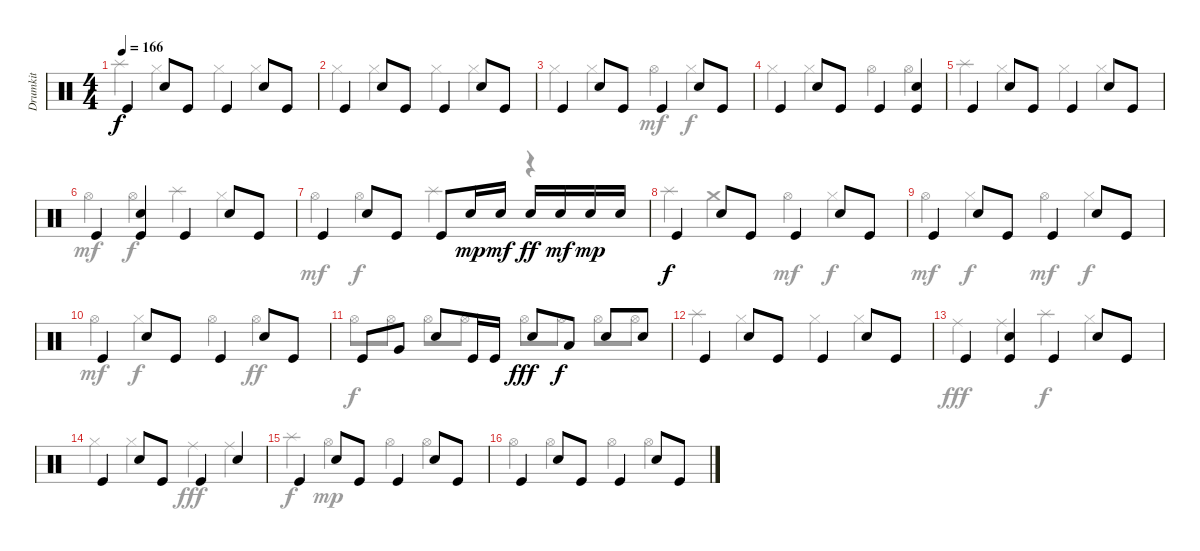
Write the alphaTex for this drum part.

\track ("Drumkit" "Drumkit") {instrument percussion}
\staff {score}
\articulation defaults
\voice
\ts (4 4)
\tempo 166
\clef neutral
\ks c "Kick (hit)".4{dy f} "Snare (hit) 2".8 "Kick (hit)".8 "Kick (hit)".4 "Snare (hit) 2".8 "Kick (hit)".8
|
"Kick (hit)".4 "Snare (hit) 2".8 "Kick (hit)".8 "Kick (hit)".4 "Snare (hit) 2".8 "Kick (hit)".8 |
"Kick (hit)".4 "Snare (hit) 2".8 "Kick (hit)".8 "Kick (hit)".4 "Snare (hit) 2".8 "Kick (hit)".8 |
"Kick (hit)".4 "Snare (hit) 2".8 "Kick (hit)".8 "Kick (hit)".4 ("Snare (hit) 2" "Kick (hit)").4 |
"Kick (hit)".4 "Snare (hit) 2".8 "Kick (hit)".8 "Kick (hit)".4 "Snare (hit) 2".8 "Kick (hit)".8 |
"Kick (hit)".4 ("Kick (hit)" "Snare (hit) 2").4 "Kick (hit)".4 "Snare (hit) 2".8 "Kick (hit)".8 |
"Kick (hit)".4 "Snare (hit) 2".8 "Kick (hit)".8 "Kick (hit)".8 "Snare (hit) 2".16{dy mp} "Snare (hit) 2".16{dy mf} "Snare (hit) 2".16{dy ff} "Snare (hit) 2".16{dy mf} "Snare (hit) 2".16{dy mp} "Snare (hit) 2".16 |
"Kick (hit)".4{dy f} "Snare (hit) 2".8 "Kick (hit)".8 "Kick (hit)".4 "Snare (hit) 2".8 "Kick (hit)".8 |
"Kick (hit)".4 "Snare (hit) 2".8 "Kick (hit)".8 "Kick (hit)".4 "Snare (hit) 2".8 "Kick (hit)".8 |
"Kick (hit)".4 "Snare (hit) 2".8 "Kick (hit)".8 "Kick (hit)".4 "Snare (hit) 2".8 "Kick (hit)".8 |
"Kick (hit)".8 "Very Low Tom (hit)".8 "Snare (hit) 2".8 "Kick (hit)".16 "Kick (hit)".16 "Snare (hit) 2".8{dy fff} "Low Floor Tom (hit)".8{dy f} "Snare (hit) 2".8 "Snare (hit) 2".8 |
"Kick (hit)".4 "Snare (hit) 2".8 "Kick (hit)".8 "Kick (hit)".4 "Snare (hit) 2".8 "Kick (hit)".8 |
"Kick (hit)".4 ("Kick (hit)" "Snare (hit) 2").4 "Kick (hit)".4 "Snare (hit) 2".8 "Kick (hit)".8 |
"Kick (hit)".4 "Snare (hit) 2".8 "Kick (hit)".8 "Kick (hit)".4 "Snare (hit) 2".4 |
"Kick (hit)".4 "Snare (hit) 2".8 "Kick (hit)".8 "Kick (hit)".4 "Snare (hit) 2".8 "Kick (hit)".8 |
"Kick (hit)".4 "Snare (hit) 2".8 "Kick (hit)".8 "Kick (hit)".4 "Snare (hit) 2".8 "Kick (hit)".8
\voice
\clef neutral
\ottava regular
\simile none
\ks c "Splash (hit)".4{dy f} "Hi-Hat (closed)".4 "Hi-Hat (closed)".4 "Hi-Hat (closed)".4
|
"Hi-Hat (closed)".4 "Hi-Hat (closed)".4 "Hi-Hat (closed)".4 "Hi-Hat (closed)".4 |
"Hi-Hat (closed)".4 "Hi-Hat (closed)".4 "Hi-Hat (open)".4{dy mf} "Hi-Hat (closed)".4{dy f} |
"Hi-Hat (closed)".4 "Hi-Hat (closed)".4 "Hi-Hat (open)".4 "Hi-Hat (open)".4 |
"Splash (hit)".4 "Hi-Hat (closed)".4 "Hi-Hat (closed)".4 "Hi-Hat (closed)".4 |
"Hi-Hat (open)".4{dy mf} "Hi-Hat (open)".4{dy f} "Splash (hit)".4 "Hi-Hat (closed)".4 |
"Hi-Hat (open)".4{dy mf} "Hi-Hat (open)".4{dy f} "Splash (hit)".4 r.4 |
"Splash (hit)".4 "Crash medium (hit)".4 "Hi-Hat (open)".4{dy mf} "Hi-Hat (closed)".4{dy f} |
"Hi-Hat (open)".4{dy mf} "Hi-Hat (closed)".4{dy f} "Hi-Hat (open)".4{dy mf} "Hi-Hat (closed)".4{dy f} |
"Hi-Hat (open)".4{dy mf} "Hi-Hat (closed)".4{dy f} "Hi-Hat (open)".4 "Hi-Hat (open)".4{dy ff} |
"Hi-Hat (open)".8{dy f} "Hi-Hat (open)".8 "Hi-Hat (open)".8 "Hi-Hat (open)".8 "Hi-Hat (open)".8 "Hi-Hat (open)".8 "Hi-Hat (open)".8 "Hi-Hat (open)".8 |
"Splash (hit)".4 "Hi-Hat (closed)".4 "Hi-Hat (closed)".4 "Hi-Hat (closed)".4 |
"Ride (middle)".4{dy fff} "Ride (middle)".4 "Splash (hit)".4{dy f} "Hi-Hat (closed)".4 |
"Hi-Hat (closed)".4 "Hi-Hat (closed)".4 "Ride (middle)".4{dy fff} "Ride (middle)".4 |
"Splash (hit)".4{dy f} "Hi-Hat (open)".4{dy mp} "Hi-Hat (open)".4 "Hi-Hat (open)".4 |
"Hi-Hat (open)".4 "Hi-Hat (open)".4 "Hi-Hat (open)".4 "Hi-Hat (open)".4
